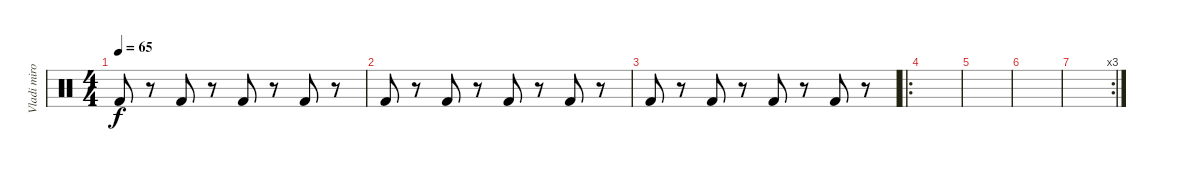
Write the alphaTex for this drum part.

\track ("Vladi miro" "Vladi miro") {solo instrument percussion}
\staff {score}
\articulation defaults
\ts (4 4)
\tempo 65
\clef neutral
\ks c "Kick (hit) 2".8{dy f}
r.8 "Kick (hit) 2".8 r.8 "Kick (hit) 2".8 r.8 "Kick (hit) 2".8 r.8 |
"Kick (hit) 2".8 r.8 "Kick (hit) 2".8 r.8 "Kick (hit) 2".8 r.8 "Kick (hit) 2".8 r.8 |
"Kick (hit) 2".8 r.8 "Kick (hit) 2".8 r.8 "Kick (hit) 2".8 r.8 "Kick (hit) 2".8 r.8 |
\ro
|
|
|
\rc 3
